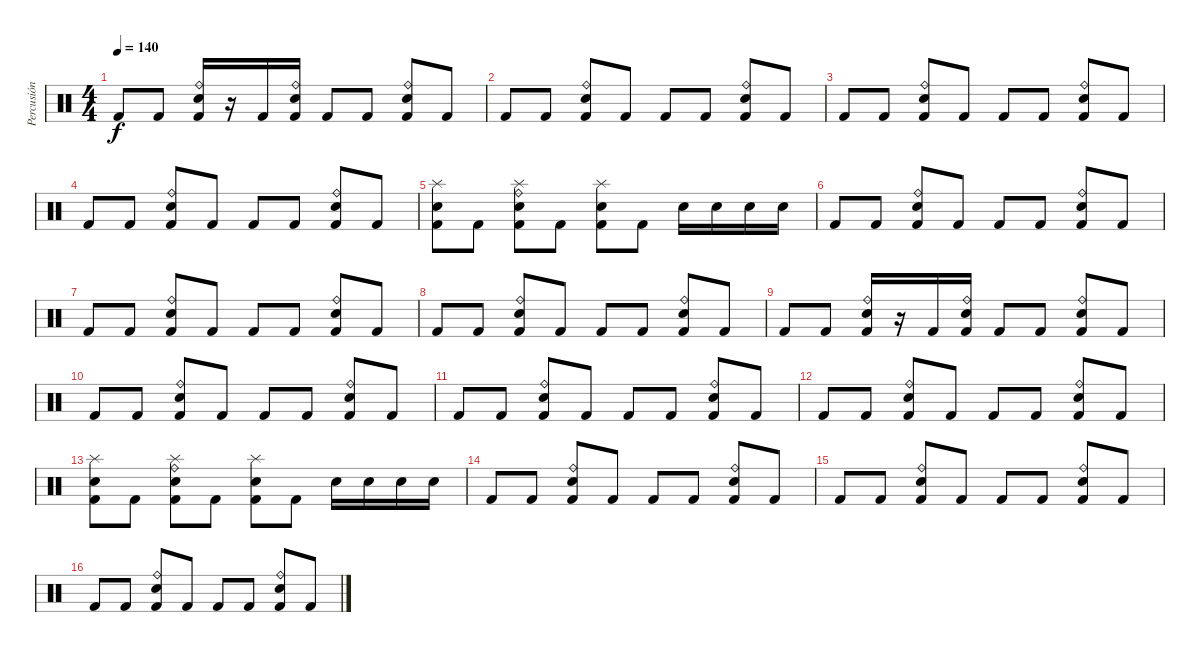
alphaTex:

\track ("Percusión" "Percusión") {instrument percussion}
\staff {score}
\articulation defaults
\ts (4 4)
\tempo 140
\clef neutral
\ks c "Kick (hit) 2".8{dy f} "Kick (hit) 2".8
("Ride (bell)" "Electric Snare (hit)" "Kick (hit) 2").16 r.16 "Kick (hit) 2".16 ("Ride (bell)" "Electric Snare (hit)" "Kick (hit) 2").16 "Kick (hit) 2".8 "Kick (hit) 2".8 ("Ride (bell)" "Electric Snare (hit)" "Kick (hit) 2").8 "Kick (hit) 2".8 |
"Kick (hit) 2".8 "Kick (hit) 2".8 ("Ride (bell)" "Electric Snare (hit)" "Kick (hit) 2").8 "Kick (hit) 2".8 "Kick (hit) 2".8 "Kick (hit) 2".8 ("Ride (bell)" "Electric Snare (hit)" "Kick (hit) 2").8 "Kick (hit) 2".8 |
"Kick (hit) 2".8 "Kick (hit) 2".8 ("Ride (bell)" "Electric Snare (hit)" "Kick (hit) 2").8 "Kick (hit) 2".8 "Kick (hit) 2".8 "Kick (hit) 2".8 ("Ride (bell)" "Electric Snare (hit)" "Kick (hit) 2").8 "Kick (hit) 2".8 |
"Kick (hit) 2".8 "Kick (hit) 2".8 ("Ride (bell)" "Electric Snare (hit)" "Kick (hit) 2").8 "Kick (hit) 2".8 "Kick (hit) 2".8 "Kick (hit) 2".8 ("Ride (bell)" "Electric Snare (hit)" "Kick (hit) 2").8 "Kick (hit) 2".8 |
("Splash (hit)" "Electric Snare (hit)" "Kick (hit) 2").8 "Kick (hit) 2".8 ("Ride (bell)" "Splash (hit)" "Electric Snare (hit)" "Kick (hit) 2").8 "Kick (hit) 2".8 ("Splash (hit)" "Electric Snare (hit)" "Kick (hit) 2").8 "Kick (hit) 2".8 "Electric Snare (hit)".16 "Electric Snare (hit)".16 "Electric Snare (hit)".16 "Electric Snare (hit)".16 |
"Kick (hit) 2".8 "Kick (hit) 2".8 ("Ride (bell)" "Electric Snare (hit)" "Kick (hit) 2").8 "Kick (hit) 2".8 "Kick (hit) 2".8 "Kick (hit) 2".8 ("Ride (bell)" "Electric Snare (hit)" "Kick (hit) 2").8 "Kick (hit) 2".8 |
"Kick (hit) 2".8 "Kick (hit) 2".8 ("Ride (bell)" "Electric Snare (hit)" "Kick (hit) 2").8 "Kick (hit) 2".8 "Kick (hit) 2".8 "Kick (hit) 2".8 ("Ride (bell)" "Electric Snare (hit)" "Kick (hit) 2").8 "Kick (hit) 2".8 |
"Kick (hit) 2".8 "Kick (hit) 2".8 ("Ride (bell)" "Electric Snare (hit)" "Kick (hit) 2").8 "Kick (hit) 2".8 "Kick (hit) 2".8 "Kick (hit) 2".8 ("Ride (bell)" "Electric Snare (hit)" "Kick (hit) 2").8 "Kick (hit) 2".8 |
"Kick (hit) 2".8 "Kick (hit) 2".8 ("Ride (bell)" "Electric Snare (hit)" "Kick (hit) 2").16 r.16 "Kick (hit) 2".16 ("Ride (bell)" "Electric Snare (hit)" "Kick (hit) 2").16 "Kick (hit) 2".8 "Kick (hit) 2".8 ("Ride (bell)" "Electric Snare (hit)" "Kick (hit) 2").8 "Kick (hit) 2".8 |
"Kick (hit) 2".8 "Kick (hit) 2".8 ("Ride (bell)" "Electric Snare (hit)" "Kick (hit) 2").8 "Kick (hit) 2".8 "Kick (hit) 2".8 "Kick (hit) 2".8 ("Ride (bell)" "Electric Snare (hit)" "Kick (hit) 2").8 "Kick (hit) 2".8 |
"Kick (hit) 2".8 "Kick (hit) 2".8 ("Ride (bell)" "Electric Snare (hit)" "Kick (hit) 2").8 "Kick (hit) 2".8 "Kick (hit) 2".8 "Kick (hit) 2".8 ("Ride (bell)" "Electric Snare (hit)" "Kick (hit) 2").8 "Kick (hit) 2".8 |
"Kick (hit) 2".8 "Kick (hit) 2".8 ("Ride (bell)" "Electric Snare (hit)" "Kick (hit) 2").8 "Kick (hit) 2".8 "Kick (hit) 2".8 "Kick (hit) 2".8 ("Ride (bell)" "Electric Snare (hit)" "Kick (hit) 2").8 "Kick (hit) 2".8 |
("Splash (hit)" "Electric Snare (hit)" "Kick (hit) 2").8 "Kick (hit) 2".8 ("Ride (bell)" "Splash (hit)" "Electric Snare (hit)" "Kick (hit) 2").8 "Kick (hit) 2".8 ("Splash (hit)" "Electric Snare (hit)" "Kick (hit) 2").8 "Kick (hit) 2".8 "Electric Snare (hit)".16 "Electric Snare (hit)".16 "Electric Snare (hit)".16 "Electric Snare (hit)".16 |
"Kick (hit) 2".8 "Kick (hit) 2".8 ("Ride (bell)" "Electric Snare (hit)" "Kick (hit) 2").8 "Kick (hit) 2".8 "Kick (hit) 2".8 "Kick (hit) 2".8 ("Ride (bell)" "Electric Snare (hit)" "Kick (hit) 2").8 "Kick (hit) 2".8 |
"Kick (hit) 2".8 "Kick (hit) 2".8 ("Ride (bell)" "Electric Snare (hit)" "Kick (hit) 2").8 "Kick (hit) 2".8 "Kick (hit) 2".8 "Kick (hit) 2".8 ("Ride (bell)" "Electric Snare (hit)" "Kick (hit) 2").8 "Kick (hit) 2".8 |
"Kick (hit) 2".8 "Kick (hit) 2".8 ("Ride (bell)" "Electric Snare (hit)" "Kick (hit) 2").8 "Kick (hit) 2".8 "Kick (hit) 2".8 "Kick (hit) 2".8 ("Ride (bell)" "Electric Snare (hit)" "Kick (hit) 2").8 "Kick (hit) 2".8
